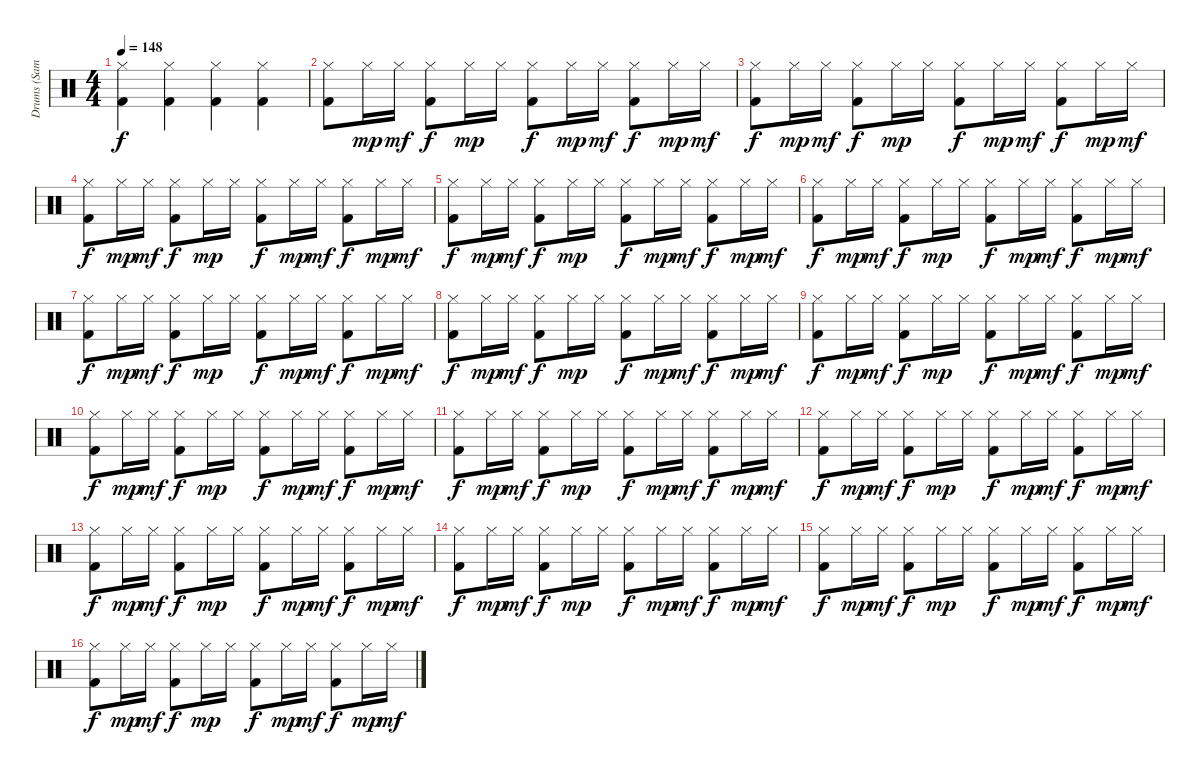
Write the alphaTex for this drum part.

\track ("Drums (Samuelson)" "Drums (Sam") {instrument percussion}
\staff
\articulation defaults
\ts (4 4)
\tempo 148
\clef neutral
\ks c
("Hi-Hat (closed)" "Kick (hit) 2").4{dy f} ("Hi-Hat (closed)" "Kick (hit) 2").4 ("Hi-Hat (closed)" "Kick (hit) 2").4 ("Hi-Hat (closed)" "Kick (hit) 2").4 |
("Hi-Hat (closed)" "Kick (hit) 2").8 "Hi-Hat (closed)".16{dy mp} "Hi-Hat (closed)".16{dy mf} ("Hi-Hat (closed)" "Kick (hit) 2").8{dy f} "Hi-Hat (closed)".16{dy mp} "Hi-Hat (closed)".16 ("Hi-Hat (closed)" "Kick (hit) 2").8{dy f} "Hi-Hat (closed)".16{dy mp} "Hi-Hat (closed)".16{dy mf} ("Hi-Hat (closed)" "Kick (hit) 2").8{dy f} "Hi-Hat (closed)".16{dy mp} "Hi-Hat (closed)".16{dy mf} |
("Hi-Hat (closed)" "Kick (hit) 2").8{dy f} "Hi-Hat (closed)".16{dy mp} "Hi-Hat (closed)".16{dy mf} ("Hi-Hat (closed)" "Kick (hit) 2").8{dy f} "Hi-Hat (closed)".16{dy mp} "Hi-Hat (closed)".16 ("Hi-Hat (closed)" "Kick (hit) 2").8{dy f} "Hi-Hat (closed)".16{dy mp} "Hi-Hat (closed)".16{dy mf} ("Hi-Hat (closed)" "Kick (hit) 2").8{dy f} "Hi-Hat (closed)".16{dy mp} "Hi-Hat (closed)".16{dy mf} |
("Hi-Hat (closed)" "Kick (hit) 2").8{dy f} "Hi-Hat (closed)".16{dy mp} "Hi-Hat (closed)".16{dy mf} ("Hi-Hat (closed)" "Kick (hit) 2").8{dy f} "Hi-Hat (closed)".16{dy mp} "Hi-Hat (closed)".16 ("Hi-Hat (closed)" "Kick (hit) 2").8{dy f} "Hi-Hat (closed)".16{dy mp} "Hi-Hat (closed)".16{dy mf} ("Hi-Hat (closed)" "Kick (hit) 2").8{dy f} "Hi-Hat (closed)".16{dy mp} "Hi-Hat (closed)".16{dy mf} |
("Hi-Hat (closed)" "Kick (hit) 2").8{dy f} "Hi-Hat (closed)".16{dy mp} "Hi-Hat (closed)".16{dy mf} ("Hi-Hat (closed)" "Kick (hit) 2").8{dy f} "Hi-Hat (closed)".16{dy mp} "Hi-Hat (closed)".16 ("Hi-Hat (closed)" "Kick (hit) 2").8{dy f} "Hi-Hat (closed)".16{dy mp} "Hi-Hat (closed)".16{dy mf} ("Hi-Hat (closed)" "Kick (hit) 2").8{dy f} "Hi-Hat (closed)".16{dy mp} "Hi-Hat (closed)".16{dy mf} |
("Hi-Hat (closed)" "Kick (hit) 2").8{dy f} "Hi-Hat (closed)".16{dy mp} "Hi-Hat (closed)".16{dy mf} ("Hi-Hat (closed)" "Kick (hit) 2").8{dy f} "Hi-Hat (closed)".16{dy mp} "Hi-Hat (closed)".16 ("Hi-Hat (closed)" "Kick (hit) 2").8{dy f} "Hi-Hat (closed)".16{dy mp} "Hi-Hat (closed)".16{dy mf} ("Hi-Hat (closed)" "Kick (hit) 2").8{dy f} "Hi-Hat (closed)".16{dy mp} "Hi-Hat (closed)".16{dy mf} |
("Hi-Hat (closed)" "Kick (hit) 2").8{dy f} "Hi-Hat (closed)".16{dy mp} "Hi-Hat (closed)".16{dy mf} ("Hi-Hat (closed)" "Kick (hit) 2").8{dy f} "Hi-Hat (closed)".16{dy mp} "Hi-Hat (closed)".16 ("Hi-Hat (closed)" "Kick (hit) 2").8{dy f} "Hi-Hat (closed)".16{dy mp} "Hi-Hat (closed)".16{dy mf} ("Hi-Hat (closed)" "Kick (hit) 2").8{dy f} "Hi-Hat (closed)".16{dy mp} "Hi-Hat (closed)".16{dy mf} |
("Hi-Hat (closed)" "Kick (hit) 2").8{dy f} "Hi-Hat (closed)".16{dy mp} "Hi-Hat (closed)".16{dy mf} ("Hi-Hat (closed)" "Kick (hit) 2").8{dy f} "Hi-Hat (closed)".16{dy mp} "Hi-Hat (closed)".16 ("Hi-Hat (closed)" "Kick (hit) 2").8{dy f} "Hi-Hat (closed)".16{dy mp} "Hi-Hat (closed)".16{dy mf} ("Hi-Hat (closed)" "Kick (hit) 2").8{dy f} "Hi-Hat (closed)".16{dy mp} "Hi-Hat (closed)".16{dy mf} |
("Hi-Hat (closed)" "Kick (hit) 2").8{dy f} "Hi-Hat (closed)".16{dy mp} "Hi-Hat (closed)".16{dy mf} ("Hi-Hat (closed)" "Kick (hit) 2").8{dy f} "Hi-Hat (closed)".16{dy mp} "Hi-Hat (closed)".16 ("Hi-Hat (closed)" "Kick (hit) 2").8{dy f} "Hi-Hat (closed)".16{dy mp} "Hi-Hat (closed)".16{dy mf} ("Hi-Hat (closed)" "Kick (hit) 2").8{dy f} "Hi-Hat (closed)".16{dy mp} "Hi-Hat (closed)".16{dy mf} |
("Hi-Hat (closed)" "Kick (hit) 2").8{dy f} "Hi-Hat (closed)".16{dy mp} "Hi-Hat (closed)".16{dy mf} ("Hi-Hat (closed)" "Kick (hit) 2").8{dy f} "Hi-Hat (closed)".16{dy mp} "Hi-Hat (closed)".16 ("Hi-Hat (closed)" "Kick (hit) 2").8{dy f} "Hi-Hat (closed)".16{dy mp} "Hi-Hat (closed)".16{dy mf} ("Hi-Hat (closed)" "Kick (hit) 2").8{dy f} "Hi-Hat (closed)".16{dy mp} "Hi-Hat (closed)".16{dy mf} |
("Hi-Hat (closed)" "Kick (hit) 2").8{dy f} "Hi-Hat (closed)".16{dy mp} "Hi-Hat (closed)".16{dy mf} ("Hi-Hat (closed)" "Kick (hit) 2").8{dy f} "Hi-Hat (closed)".16{dy mp} "Hi-Hat (closed)".16 ("Hi-Hat (closed)" "Kick (hit) 2").8{dy f} "Hi-Hat (closed)".16{dy mp} "Hi-Hat (closed)".16{dy mf} ("Hi-Hat (closed)" "Kick (hit) 2").8{dy f} "Hi-Hat (closed)".16{dy mp} "Hi-Hat (closed)".16{dy mf} |
("Hi-Hat (closed)" "Kick (hit) 2").8{dy f} "Hi-Hat (closed)".16{dy mp} "Hi-Hat (closed)".16{dy mf} ("Hi-Hat (closed)" "Kick (hit) 2").8{dy f} "Hi-Hat (closed)".16{dy mp} "Hi-Hat (closed)".16 ("Hi-Hat (closed)" "Kick (hit) 2").8{dy f} "Hi-Hat (closed)".16{dy mp} "Hi-Hat (closed)".16{dy mf} ("Hi-Hat (closed)" "Kick (hit) 2").8{dy f} "Hi-Hat (closed)".16{dy mp} "Hi-Hat (closed)".16{dy mf} |
("Hi-Hat (closed)" "Kick (hit) 2").8{dy f} "Hi-Hat (closed)".16{dy mp} "Hi-Hat (closed)".16{dy mf} ("Hi-Hat (closed)" "Kick (hit) 2").8{dy f} "Hi-Hat (closed)".16{dy mp} "Hi-Hat (closed)".16 ("Hi-Hat (closed)" "Kick (hit) 2").8{dy f} "Hi-Hat (closed)".16{dy mp} "Hi-Hat (closed)".16{dy mf} ("Hi-Hat (closed)" "Kick (hit) 2").8{dy f} "Hi-Hat (closed)".16{dy mp} "Hi-Hat (closed)".16{dy mf} |
("Hi-Hat (closed)" "Kick (hit) 2").8{dy f} "Hi-Hat (closed)".16{dy mp} "Hi-Hat (closed)".16{dy mf} ("Hi-Hat (closed)" "Kick (hit) 2").8{dy f} "Hi-Hat (closed)".16{dy mp} "Hi-Hat (closed)".16 ("Hi-Hat (closed)" "Kick (hit) 2").8{dy f} "Hi-Hat (closed)".16{dy mp} "Hi-Hat (closed)".16{dy mf} ("Hi-Hat (closed)" "Kick (hit) 2").8{dy f} "Hi-Hat (closed)".16{dy mp} "Hi-Hat (closed)".16{dy mf} |
("Hi-Hat (closed)" "Kick (hit) 2").8{dy f} "Hi-Hat (closed)".16{dy mp} "Hi-Hat (closed)".16{dy mf} ("Hi-Hat (closed)" "Kick (hit) 2").8{dy f} "Hi-Hat (closed)".16{dy mp} "Hi-Hat (closed)".16 ("Hi-Hat (closed)" "Kick (hit) 2").8{dy f} "Hi-Hat (closed)".16{dy mp} "Hi-Hat (closed)".16{dy mf} ("Hi-Hat (closed)" "Kick (hit) 2").8{dy f} "Hi-Hat (closed)".16{dy mp} "Hi-Hat (closed)".16{dy mf} |
("Hi-Hat (closed)" "Kick (hit) 2").8{dy f} "Hi-Hat (closed)".16{dy mp} "Hi-Hat (closed)".16{dy mf} ("Hi-Hat (closed)" "Kick (hit) 2").8{dy f} "Hi-Hat (closed)".16{dy mp} "Hi-Hat (closed)".16 ("Hi-Hat (closed)" "Kick (hit) 2").8{dy f} "Hi-Hat (closed)".16{dy mp} "Hi-Hat (closed)".16{dy mf} ("Hi-Hat (closed)" "Kick (hit) 2").8{dy f} "Hi-Hat (closed)".16{dy mp} "Hi-Hat (closed)".16{dy mf}
